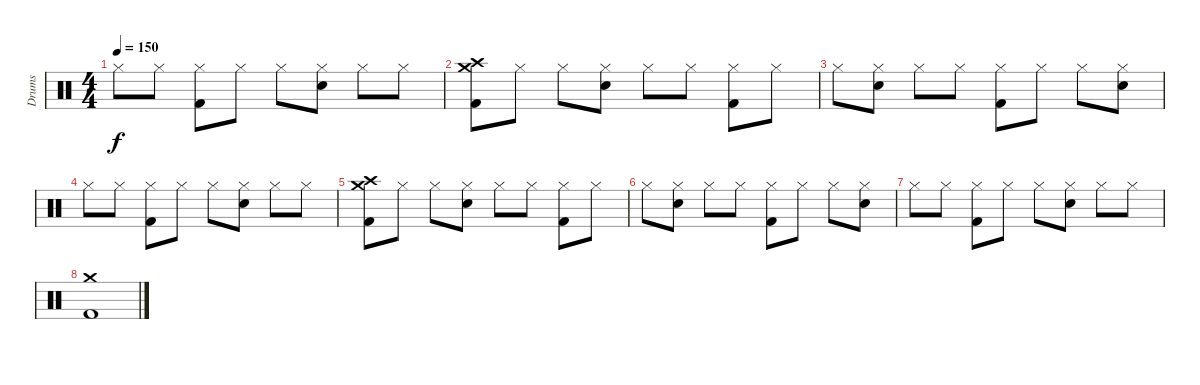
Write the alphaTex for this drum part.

\track ("Drums" "Drums") {instrument percussion}
\staff {score}
\articulation defaults
\ts (4 4)
\tempo 150
\clef neutral
\ks c "Hi-Hat (closed)".8{dy f} "Hi-Hat (closed)".8
("Hi-Hat (closed)" "Kick (hit) 2").8 "Hi-Hat (closed)".8 "Hi-Hat (closed)".8 ("Hi-Hat (closed)" "Electric Snare (hit)").8 "Hi-Hat (closed)".8 "Hi-Hat (closed)".8 |
("Crash high (hit)" "Crash medium (hit)" "Kick (hit) 2").8 "Hi-Hat (closed)".8 "Hi-Hat (closed)".8 ("Hi-Hat (closed)" "Electric Snare (hit)").8 "Hi-Hat (closed)".8 "Hi-Hat (closed)".8 ("Hi-Hat (closed)" "Kick (hit) 2").8 "Hi-Hat (closed)".8 |
"Hi-Hat (closed)".8 ("Hi-Hat (closed)" "Electric Snare (hit)").8 "Hi-Hat (closed)".8 "Hi-Hat (closed)".8 ("Hi-Hat (closed)" "Kick (hit) 2").8 "Hi-Hat (closed)".8 "Hi-Hat (closed)".8 ("Hi-Hat (closed)" "Electric Snare (hit)").8 |
"Hi-Hat (closed)".8 "Hi-Hat (closed)".8 ("Hi-Hat (closed)" "Kick (hit) 2").8 "Hi-Hat (closed)".8 "Hi-Hat (closed)".8 ("Hi-Hat (closed)" "Electric Snare (hit)").8 "Hi-Hat (closed)".8 "Hi-Hat (closed)".8 |
("Crash high (hit)" "Crash medium (hit)" "Kick (hit) 2").8 "Hi-Hat (closed)".8 "Hi-Hat (closed)".8 ("Hi-Hat (closed)" "Electric Snare (hit)").8 "Hi-Hat (closed)".8 "Hi-Hat (closed)".8 ("Hi-Hat (closed)" "Kick (hit) 2").8 "Hi-Hat (closed)".8 |
"Hi-Hat (closed)".8 ("Hi-Hat (closed)" "Electric Snare (hit)").8 "Hi-Hat (closed)".8 "Hi-Hat (closed)".8 ("Hi-Hat (closed)" "Kick (hit) 2").8 "Hi-Hat (closed)".8 "Hi-Hat (closed)".8 ("Hi-Hat (closed)" "Electric Snare (hit)").8 |
"Hi-Hat (closed)".8 "Hi-Hat (closed)".8 ("Hi-Hat (closed)" "Kick (hit) 2").8 "Hi-Hat (closed)".8 "Hi-Hat (closed)".8 ("Hi-Hat (closed)" "Electric Snare (hit)").8 "Hi-Hat (closed)".8 "Hi-Hat (closed)".8 |
("Crash medium (hit)" "Kick (hit) 2").1
